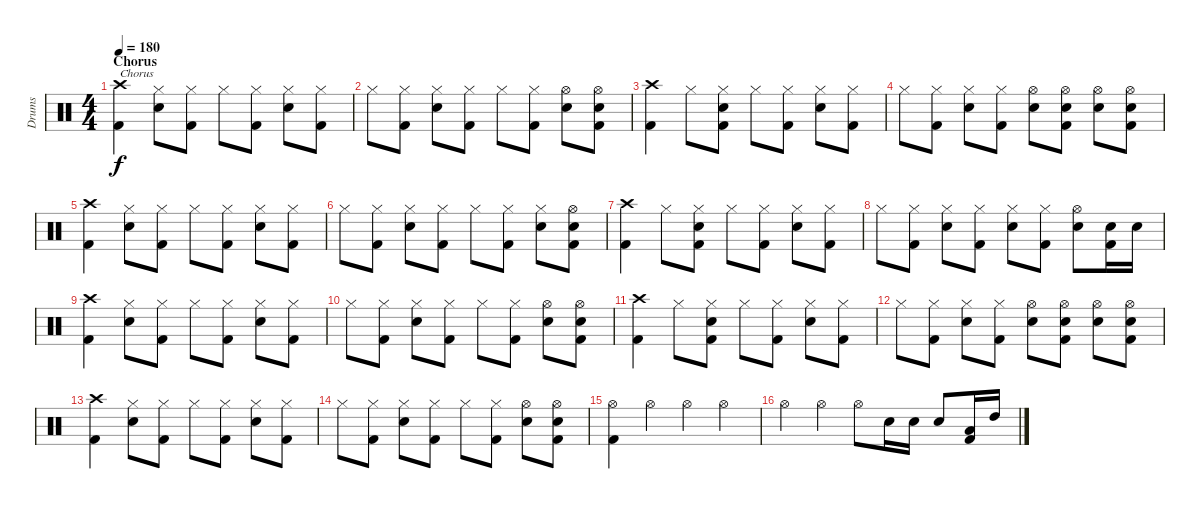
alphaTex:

\track ("Drums" "Drums") {instrument percussion}
\staff {score}
\articulation defaults
\ts (4 4)
\section ("" "Chorus")
\tempo 180
\clef neutral
\ks c
("Crash high (hit)" "Kick (hit) 2").4{txt "Chorus" dy f} ("Hi-Hat (closed)" "Electric Snare (hit)").8 ("Hi-Hat (closed)" "Kick (hit) 2").8 "Hi-Hat (closed)".8 ("Hi-Hat (closed)" "Kick (hit) 2").8 ("Hi-Hat (closed)" "Electric Snare (hit)").8 ("Hi-Hat (closed)" "Kick (hit) 2").8 |
"Hi-Hat (closed)".8 ("Hi-Hat (closed)" "Kick (hit) 2").8 ("Hi-Hat (closed)" "Electric Snare (hit)").8 ("Hi-Hat (closed)" "Kick (hit) 2").8 "Hi-Hat (closed)".8 ("Hi-Hat (closed)" "Kick (hit) 2").8 ("Hi-Hat (open)" "Electric Snare (hit)").8 ("Hi-Hat (open)" "Electric Snare (hit)" "Kick (hit) 2").8 |
("Crash high (hit)" "Kick (hit) 2").4 "Hi-Hat (closed)".8 ("Hi-Hat (closed)" "Electric Snare (hit)" "Kick (hit) 2").8 "Hi-Hat (closed)".8 ("Hi-Hat (closed)" "Kick (hit) 2").8 ("Hi-Hat (closed)" "Electric Snare (hit)").8 ("Hi-Hat (closed)" "Kick (hit) 2").8 |
"Hi-Hat (closed)".8 ("Hi-Hat (closed)" "Kick (hit) 2").8 ("Hi-Hat (closed)" "Electric Snare (hit)").8 ("Hi-Hat (closed)" "Kick (hit) 2").8 ("Hi-Hat (open)" "Electric Snare (hit)").8 ("Hi-Hat (open)" "Electric Snare (hit)" "Kick (hit) 2").8 ("Hi-Hat (open)" "Electric Snare (hit)").8 ("Hi-Hat (open)" "Electric Snare (hit)" "Kick (hit) 2").8 |
("Crash high (hit)" "Kick (hit) 2").4 ("Hi-Hat (closed)" "Electric Snare (hit)").8 ("Hi-Hat (closed)" "Kick (hit) 2").8 "Hi-Hat (closed)".8 ("Hi-Hat (closed)" "Kick (hit) 2").8 ("Hi-Hat (closed)" "Electric Snare (hit)").8 ("Hi-Hat (closed)" "Kick (hit) 2").8 |
"Hi-Hat (closed)".8 ("Hi-Hat (closed)" "Kick (hit) 2").8 ("Hi-Hat (closed)" "Electric Snare (hit)").8 ("Hi-Hat (closed)" "Kick (hit) 2").8 "Hi-Hat (closed)".8 ("Hi-Hat (closed)" "Kick (hit) 2").8 ("Hi-Hat (closed)" "Electric Snare (hit)").8 ("Hi-Hat (open)" "Electric Snare (hit)" "Kick (hit) 2").8 |
("Crash high (hit)" "Kick (hit) 2").4 "Hi-Hat (closed)".8 ("Hi-Hat (closed)" "Electric Snare (hit)" "Kick (hit) 2").8 "Hi-Hat (closed)".8 ("Hi-Hat (closed)" "Kick (hit) 2").8 ("Hi-Hat (closed)" "Electric Snare (hit)").8 ("Hi-Hat (closed)" "Kick (hit) 2").8 |
"Hi-Hat (closed)".8 ("Hi-Hat (closed)" "Kick (hit) 2").8 ("Hi-Hat (closed)" "Electric Snare (hit)").8 ("Hi-Hat (closed)" "Kick (hit) 2").8 ("Hi-Hat (closed)" "Electric Snare (hit)").8 ("Hi-Hat (closed)" "Kick (hit) 2").8 ("Hi-Hat (open)" "Electric Snare (hit)").8 ("Electric Snare (hit)" "Kick (hit) 2").16 "Electric Snare (hit)".16 |
("Crash high (hit)" "Kick (hit) 2").4 ("Hi-Hat (closed)" "Electric Snare (hit)").8 ("Hi-Hat (closed)" "Kick (hit) 2").8 "Hi-Hat (closed)".8 ("Hi-Hat (closed)" "Kick (hit) 2").8 ("Hi-Hat (closed)" "Electric Snare (hit)").8 ("Hi-Hat (closed)" "Kick (hit) 2").8 |
"Hi-Hat (closed)".8 ("Hi-Hat (closed)" "Kick (hit) 2").8 ("Hi-Hat (closed)" "Electric Snare (hit)").8 ("Hi-Hat (closed)" "Kick (hit) 2").8 "Hi-Hat (closed)".8 ("Hi-Hat (closed)" "Kick (hit) 2").8 ("Hi-Hat (open)" "Electric Snare (hit)").8 ("Hi-Hat (open)" "Electric Snare (hit)" "Kick (hit) 2").8 |
("Crash high (hit)" "Kick (hit) 2").4 "Hi-Hat (closed)".8 ("Hi-Hat (closed)" "Electric Snare (hit)" "Kick (hit) 2").8 "Hi-Hat (closed)".8 ("Hi-Hat (closed)" "Kick (hit) 2").8 ("Hi-Hat (closed)" "Electric Snare (hit)").8 ("Hi-Hat (closed)" "Kick (hit) 2").8 |
"Hi-Hat (closed)".8 ("Hi-Hat (closed)" "Kick (hit) 2").8 ("Hi-Hat (closed)" "Electric Snare (hit)").8 ("Hi-Hat (closed)" "Kick (hit) 2").8 ("Hi-Hat (open)" "Electric Snare (hit)").8 ("Hi-Hat (open)" "Electric Snare (hit)" "Kick (hit) 2").8 ("Hi-Hat (open)" "Electric Snare (hit)").8 ("Hi-Hat (open)" "Electric Snare (hit)" "Kick (hit) 2").8 |
("Crash high (hit)" "Kick (hit) 2").4 ("Hi-Hat (closed)" "Electric Snare (hit)").8 ("Hi-Hat (closed)" "Kick (hit) 2").8 "Hi-Hat (closed)".8 ("Hi-Hat (closed)" "Kick (hit) 2").8 ("Hi-Hat (closed)" "Electric Snare (hit)").8 ("Hi-Hat (closed)" "Kick (hit) 2").8 |
"Hi-Hat (closed)".8 ("Hi-Hat (closed)" "Kick (hit) 2").8 ("Hi-Hat (closed)" "Electric Snare (hit)").8 ("Hi-Hat (closed)" "Kick (hit) 2").8 "Hi-Hat (closed)".8 ("Hi-Hat (closed)" "Kick (hit) 2").8 ("Hi-Hat (open)" "Electric Snare (hit)").8 ("Hi-Hat (open)" "Electric Snare (hit)" "Kick (hit) 2").8 |
("Hi-Hat (open)" "Kick (hit) 2").4 "Hi-Hat (open)".4 "Hi-Hat (open)".4 "Hi-Hat (open)".4 |
"Hi-Hat (open)".4 "Hi-Hat (open)".4 "Hi-Hat (open)".8 "Electric Snare (hit)".16 "Electric Snare (hit)".16 "Electric Snare (hit)".8 ("Low Floor Tom (hit)" "Kick (hit) 2").16 "High Tom (hit)".16
